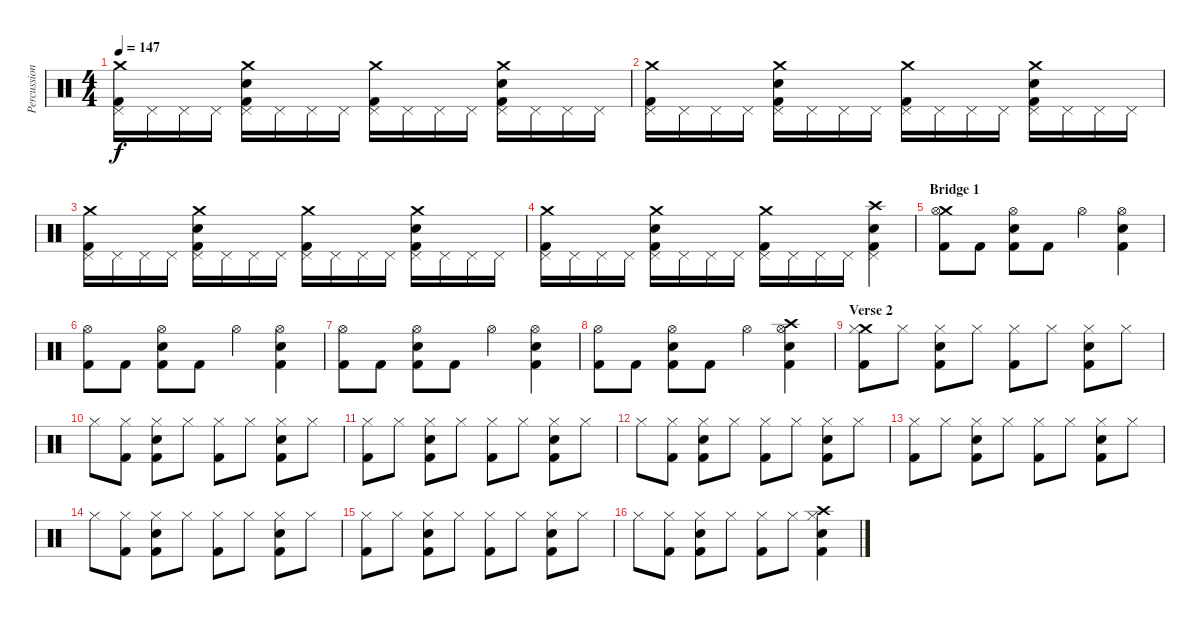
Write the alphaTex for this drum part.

\track ("Percussions" "Percussion") {instrument percussion}
\staff {score}
\articulation defaults
\ts (4 4)
\tempo 147
\clef neutral
\ks c
("Crash medium (hit)" "Pedal Hi-Hat (hit)" "Kick (hit) 2").16{dy f} "Pedal Hi-Hat (hit)".16 "Pedal Hi-Hat (hit)".16 "Pedal Hi-Hat (hit)".16 ("Crash medium (hit)" "Pedal Hi-Hat (hit)" "Electric Snare (hit)" "Kick (hit) 2").16 "Pedal Hi-Hat (hit)".16 "Pedal Hi-Hat (hit)".16 "Pedal Hi-Hat (hit)".16 ("Crash medium (hit)" "Pedal Hi-Hat (hit)" "Kick (hit) 2").16 "Pedal Hi-Hat (hit)".16 "Pedal Hi-Hat (hit)".16 "Pedal Hi-Hat (hit)".16 ("Crash medium (hit)" "Pedal Hi-Hat (hit)" "Electric Snare (hit)" "Kick (hit) 2").16 "Pedal Hi-Hat (hit)".16 "Pedal Hi-Hat (hit)".16 "Pedal Hi-Hat (hit)".16 |
("Crash medium (hit)" "Pedal Hi-Hat (hit)" "Kick (hit) 2").16 "Pedal Hi-Hat (hit)".16 "Pedal Hi-Hat (hit)".16 "Pedal Hi-Hat (hit)".16 ("Crash medium (hit)" "Pedal Hi-Hat (hit)" "Electric Snare (hit)" "Kick (hit) 2").16 "Pedal Hi-Hat (hit)".16 "Pedal Hi-Hat (hit)".16 "Pedal Hi-Hat (hit)".16 ("Crash medium (hit)" "Pedal Hi-Hat (hit)" "Kick (hit) 2").16 "Pedal Hi-Hat (hit)".16 "Pedal Hi-Hat (hit)".16 "Pedal Hi-Hat (hit)".16 ("Crash medium (hit)" "Pedal Hi-Hat (hit)" "Electric Snare (hit)" "Kick (hit) 2").16 "Pedal Hi-Hat (hit)".16 "Pedal Hi-Hat (hit)".16 "Pedal Hi-Hat (hit)".16 |
("Crash medium (hit)" "Pedal Hi-Hat (hit)" "Kick (hit) 2").16 "Pedal Hi-Hat (hit)".16 "Pedal Hi-Hat (hit)".16 "Pedal Hi-Hat (hit)".16 ("Crash medium (hit)" "Pedal Hi-Hat (hit)" "Electric Snare (hit)" "Kick (hit) 2").16 "Pedal Hi-Hat (hit)".16 "Pedal Hi-Hat (hit)".16 "Pedal Hi-Hat (hit)".16 ("Crash medium (hit)" "Pedal Hi-Hat (hit)" "Kick (hit) 2").16 "Pedal Hi-Hat (hit)".16 "Pedal Hi-Hat (hit)".16 "Pedal Hi-Hat (hit)".16 ("Crash medium (hit)" "Pedal Hi-Hat (hit)" "Electric Snare (hit)" "Kick (hit) 2").16 "Pedal Hi-Hat (hit)".16 "Pedal Hi-Hat (hit)".16 "Pedal Hi-Hat (hit)".16 |
("Crash medium (hit)" "Pedal Hi-Hat (hit)" "Kick (hit) 2").16 "Pedal Hi-Hat (hit)".16 "Pedal Hi-Hat (hit)".16 "Pedal Hi-Hat (hit)".16 ("Crash medium (hit)" "Pedal Hi-Hat (hit)" "Electric Snare (hit)" "Kick (hit) 2").16 "Pedal Hi-Hat (hit)".16 "Pedal Hi-Hat (hit)".16 "Pedal Hi-Hat (hit)".16 ("Crash medium (hit)" "Pedal Hi-Hat (hit)" "Kick (hit) 2").16 "Pedal Hi-Hat (hit)".16 "Pedal Hi-Hat (hit)".16 "Pedal Hi-Hat (hit)".16 ("Crash high (hit)" "Pedal Hi-Hat (hit)" "Electric Snare (hit)" "Kick (hit) 2").4 |
\section ("" "Bridge 1")
("Crash medium (hit)" "Hi-Hat (open)" "Kick (hit) 2").8 "Kick (hit) 2".8 ("Hi-Hat (open)" "Electric Snare (hit)" "Kick (hit) 2").8 "Kick (hit) 2".8 "Hi-Hat (open)".4 ("Hi-Hat (open)" "Electric Snare (hit)" "Kick (hit) 2").4 |
("Hi-Hat (open)" "Kick (hit) 2").8 "Kick (hit) 2".8 ("Hi-Hat (open)" "Electric Snare (hit)" "Kick (hit) 2").8 "Kick (hit) 2".8 "Hi-Hat (open)".4 ("Hi-Hat (open)" "Electric Snare (hit)" "Kick (hit) 2").4 |
("Hi-Hat (open)" "Kick (hit) 2").8 "Kick (hit) 2".8 ("Hi-Hat (open)" "Electric Snare (hit)" "Kick (hit) 2").8 "Kick (hit) 2".8 "Hi-Hat (open)".4 ("Hi-Hat (open)" "Electric Snare (hit)" "Kick (hit) 2").4 |
("Hi-Hat (open)" "Kick (hit) 2").8 "Kick (hit) 2".8 ("Hi-Hat (open)" "Electric Snare (hit)" "Kick (hit) 2").8 "Kick (hit) 2".8 "Hi-Hat (open)".4 ("Crash high (hit)" "Hi-Hat (open)" "Electric Snare (hit)" "Kick (hit) 2").4 |
\section ("" "Verse 2")
("Crash medium (hit)" "Hi-Hat (closed)" "Kick (hit) 2").8 "Hi-Hat (closed)".8 ("Hi-Hat (closed)" "Electric Snare (hit)" "Kick (hit) 2").8 "Hi-Hat (closed)".8 ("Hi-Hat (closed)" "Kick (hit) 2").8 "Hi-Hat (closed)".8 ("Hi-Hat (closed)" "Electric Snare (hit)" "Kick (hit) 2").8 "Hi-Hat (closed)".8 |
"Hi-Hat (closed)".8 ("Hi-Hat (closed)" "Kick (hit) 2").8 ("Hi-Hat (closed)" "Electric Snare (hit)" "Kick (hit) 2").8 "Hi-Hat (closed)".8 ("Hi-Hat (closed)" "Kick (hit) 2").8 "Hi-Hat (closed)".8 ("Hi-Hat (closed)" "Electric Snare (hit)" "Kick (hit) 2").8 "Hi-Hat (closed)".8 |
("Hi-Hat (closed)" "Kick (hit) 2").8 "Hi-Hat (closed)".8 ("Hi-Hat (closed)" "Electric Snare (hit)" "Kick (hit) 2").8 "Hi-Hat (closed)".8 ("Hi-Hat (closed)" "Kick (hit) 2").8 "Hi-Hat (closed)".8 ("Hi-Hat (closed)" "Electric Snare (hit)" "Kick (hit) 2").8 "Hi-Hat (closed)".8 |
"Hi-Hat (closed)".8 ("Hi-Hat (closed)" "Kick (hit) 2").8 ("Hi-Hat (closed)" "Electric Snare (hit)" "Kick (hit) 2").8 "Hi-Hat (closed)".8 ("Hi-Hat (closed)" "Kick (hit) 2").8 "Hi-Hat (closed)".8 ("Hi-Hat (closed)" "Electric Snare (hit)" "Kick (hit) 2").8 "Hi-Hat (closed)".8 |
("Hi-Hat (closed)" "Kick (hit) 2").8 "Hi-Hat (closed)".8 ("Hi-Hat (closed)" "Electric Snare (hit)" "Kick (hit) 2").8 "Hi-Hat (closed)".8 ("Hi-Hat (closed)" "Kick (hit) 2").8 "Hi-Hat (closed)".8 ("Hi-Hat (closed)" "Electric Snare (hit)" "Kick (hit) 2").8 "Hi-Hat (closed)".8 |
"Hi-Hat (closed)".8 ("Hi-Hat (closed)" "Kick (hit) 2").8 ("Hi-Hat (closed)" "Electric Snare (hit)" "Kick (hit) 2").8 "Hi-Hat (closed)".8 ("Hi-Hat (closed)" "Kick (hit) 2").8 "Hi-Hat (closed)".8 ("Hi-Hat (closed)" "Electric Snare (hit)" "Kick (hit) 2").8 "Hi-Hat (closed)".8 |
("Hi-Hat (closed)" "Kick (hit) 2").8 "Hi-Hat (closed)".8 ("Hi-Hat (closed)" "Electric Snare (hit)" "Kick (hit) 2").8 "Hi-Hat (closed)".8 ("Hi-Hat (closed)" "Kick (hit) 2").8 "Hi-Hat (closed)".8 ("Hi-Hat (closed)" "Electric Snare (hit)" "Kick (hit) 2").8 "Hi-Hat (closed)".8 |
"Hi-Hat (closed)".8 ("Hi-Hat (closed)" "Kick (hit) 2").8 ("Hi-Hat (closed)" "Electric Snare (hit)" "Kick (hit) 2").8 "Hi-Hat (closed)".8 ("Hi-Hat (closed)" "Kick (hit) 2").8 "Hi-Hat (closed)".8 ("Crash high (hit)" "Hi-Hat (closed)" "Electric Snare (hit)" "Kick (hit) 2").4
